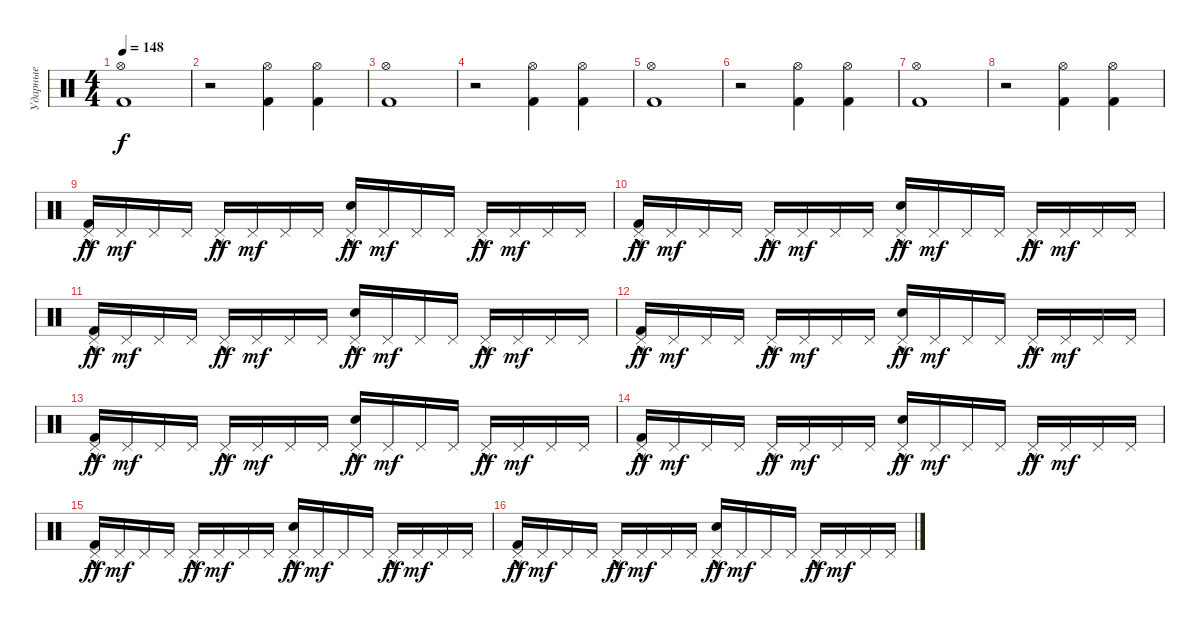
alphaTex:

\track ("Ударные" "Ударные") {instrument percussion}
\staff
\articulation defaults
\ts (4 4)
\tempo 148
\clef neutral
\ks c
("Hi-Hat (open)" "Kick (hit) 2").1{dy f} |
r.2 ("Hi-Hat (open)" "Kick (hit) 2").4 ("Hi-Hat (open)" "Kick (hit) 2").4 |
("Hi-Hat (open)" "Kick (hit) 2").1 |
r.2 ("Hi-Hat (open)" "Kick (hit) 2").4 ("Hi-Hat (open)" "Kick (hit) 2").4 |
("Hi-Hat (open)" "Kick (hit) 2").1 |
r.2 ("Hi-Hat (open)" "Kick (hit) 2").4 ("Hi-Hat (open)" "Kick (hit) 2").4 |
("Hi-Hat (open)" "Kick (hit) 2").1 |
r.2 ("Hi-Hat (open)" "Kick (hit) 2").4 ("Hi-Hat (open)" "Kick (hit) 2").4 |
("Kick (hit) 2" "Pedal Hi-Hat (hit)"{hac}).16{dy ff} "Pedal Hi-Hat (hit)".16{dy mf} "Pedal Hi-Hat (hit)".16 "Pedal Hi-Hat (hit)".16 "Pedal Hi-Hat (hit)"{hac}.16{dy ff} "Pedal Hi-Hat (hit)".16{dy mf} "Pedal Hi-Hat (hit)".16 "Pedal Hi-Hat (hit)".16 ("Snare (hit) 2" "Pedal Hi-Hat (hit)"{hac}).16{dy ff} "Pedal Hi-Hat (hit)".16{dy mf} "Pedal Hi-Hat (hit)".16 "Pedal Hi-Hat (hit)".16 "Pedal Hi-Hat (hit)"{hac}.16{dy ff} "Pedal Hi-Hat (hit)".16{dy mf} "Pedal Hi-Hat (hit)".16 "Pedal Hi-Hat (hit)".16 |
("Kick (hit) 2" "Pedal Hi-Hat (hit)"{hac}).16{dy ff} "Pedal Hi-Hat (hit)".16{dy mf} "Pedal Hi-Hat (hit)".16 "Pedal Hi-Hat (hit)".16 "Pedal Hi-Hat (hit)"{hac}.16{dy ff} "Pedal Hi-Hat (hit)".16{dy mf} "Pedal Hi-Hat (hit)".16 "Pedal Hi-Hat (hit)".16 ("Snare (hit) 2" "Pedal Hi-Hat (hit)"{hac}).16{dy ff} "Pedal Hi-Hat (hit)".16{dy mf} "Pedal Hi-Hat (hit)".16 "Pedal Hi-Hat (hit)".16 "Pedal Hi-Hat (hit)"{hac}.16{dy ff} "Pedal Hi-Hat (hit)".16{dy mf} "Pedal Hi-Hat (hit)".16 "Pedal Hi-Hat (hit)".16 |
("Kick (hit) 2" "Pedal Hi-Hat (hit)"{hac}).16{dy ff} "Pedal Hi-Hat (hit)".16{dy mf} "Pedal Hi-Hat (hit)".16 "Pedal Hi-Hat (hit)".16 "Pedal Hi-Hat (hit)"{hac}.16{dy ff} "Pedal Hi-Hat (hit)".16{dy mf} "Pedal Hi-Hat (hit)".16 "Pedal Hi-Hat (hit)".16 ("Snare (hit) 2" "Pedal Hi-Hat (hit)"{hac}).16{dy ff} "Pedal Hi-Hat (hit)".16{dy mf} "Pedal Hi-Hat (hit)".16 "Pedal Hi-Hat (hit)".16 "Pedal Hi-Hat (hit)"{hac}.16{dy ff} "Pedal Hi-Hat (hit)".16{dy mf} "Pedal Hi-Hat (hit)".16 "Pedal Hi-Hat (hit)".16 |
("Kick (hit) 2" "Pedal Hi-Hat (hit)"{hac}).16{dy ff} "Pedal Hi-Hat (hit)".16{dy mf} "Pedal Hi-Hat (hit)".16 "Pedal Hi-Hat (hit)".16 "Pedal Hi-Hat (hit)"{hac}.16{dy ff} "Pedal Hi-Hat (hit)".16{dy mf} "Pedal Hi-Hat (hit)".16 "Pedal Hi-Hat (hit)".16 ("Snare (hit) 2" "Pedal Hi-Hat (hit)"{hac}).16{dy ff} "Pedal Hi-Hat (hit)".16{dy mf} "Pedal Hi-Hat (hit)".16 "Pedal Hi-Hat (hit)".16 "Pedal Hi-Hat (hit)"{hac}.16{dy ff} "Pedal Hi-Hat (hit)".16{dy mf} "Pedal Hi-Hat (hit)".16 "Pedal Hi-Hat (hit)".16 |
("Kick (hit) 2" "Pedal Hi-Hat (hit)"{hac}).16{dy ff} "Pedal Hi-Hat (hit)".16{dy mf} "Pedal Hi-Hat (hit)".16 "Pedal Hi-Hat (hit)".16 "Pedal Hi-Hat (hit)"{hac}.16{dy ff} "Pedal Hi-Hat (hit)".16{dy mf} "Pedal Hi-Hat (hit)".16 "Pedal Hi-Hat (hit)".16 ("Snare (hit) 2" "Pedal Hi-Hat (hit)"{hac}).16{dy ff} "Pedal Hi-Hat (hit)".16{dy mf} "Pedal Hi-Hat (hit)".16 "Pedal Hi-Hat (hit)".16 "Pedal Hi-Hat (hit)"{hac}.16{dy ff} "Pedal Hi-Hat (hit)".16{dy mf} "Pedal Hi-Hat (hit)".16 "Pedal Hi-Hat (hit)".16 |
("Kick (hit) 2" "Pedal Hi-Hat (hit)"{hac}).16{dy ff} "Pedal Hi-Hat (hit)".16{dy mf} "Pedal Hi-Hat (hit)".16 "Pedal Hi-Hat (hit)".16 "Pedal Hi-Hat (hit)"{hac}.16{dy ff} "Pedal Hi-Hat (hit)".16{dy mf} "Pedal Hi-Hat (hit)".16 "Pedal Hi-Hat (hit)".16 ("Snare (hit) 2" "Pedal Hi-Hat (hit)"{hac}).16{dy ff} "Pedal Hi-Hat (hit)".16{dy mf} "Pedal Hi-Hat (hit)".16 "Pedal Hi-Hat (hit)".16 "Pedal Hi-Hat (hit)"{hac}.16{dy ff} "Pedal Hi-Hat (hit)".16{dy mf} "Pedal Hi-Hat (hit)".16 "Pedal Hi-Hat (hit)".16 |
("Kick (hit) 2" "Pedal Hi-Hat (hit)"{hac}).16{dy ff} "Pedal Hi-Hat (hit)".16{dy mf} "Pedal Hi-Hat (hit)".16 "Pedal Hi-Hat (hit)".16 "Pedal Hi-Hat (hit)"{hac}.16{dy ff} "Pedal Hi-Hat (hit)".16{dy mf} "Pedal Hi-Hat (hit)".16 "Pedal Hi-Hat (hit)".16 ("Snare (hit) 2" "Pedal Hi-Hat (hit)"{hac}).16{dy ff} "Pedal Hi-Hat (hit)".16{dy mf} "Pedal Hi-Hat (hit)".16 "Pedal Hi-Hat (hit)".16 "Pedal Hi-Hat (hit)"{hac}.16{dy ff} "Pedal Hi-Hat (hit)".16{dy mf} "Pedal Hi-Hat (hit)".16 "Pedal Hi-Hat (hit)".16 |
("Kick (hit) 2" "Pedal Hi-Hat (hit)"{hac}).16{dy ff} "Pedal Hi-Hat (hit)".16{dy mf} "Pedal Hi-Hat (hit)".16 "Pedal Hi-Hat (hit)".16 "Pedal Hi-Hat (hit)"{hac}.16{dy ff} "Pedal Hi-Hat (hit)".16{dy mf} "Pedal Hi-Hat (hit)".16 "Pedal Hi-Hat (hit)".16 ("Snare (hit) 2" "Pedal Hi-Hat (hit)"{hac}).16{dy ff} "Pedal Hi-Hat (hit)".16{dy mf} "Pedal Hi-Hat (hit)".16 "Pedal Hi-Hat (hit)".16 "Pedal Hi-Hat (hit)"{hac}.16{dy ff} "Pedal Hi-Hat (hit)".16{dy mf} "Pedal Hi-Hat (hit)".16 "Pedal Hi-Hat (hit)".16
